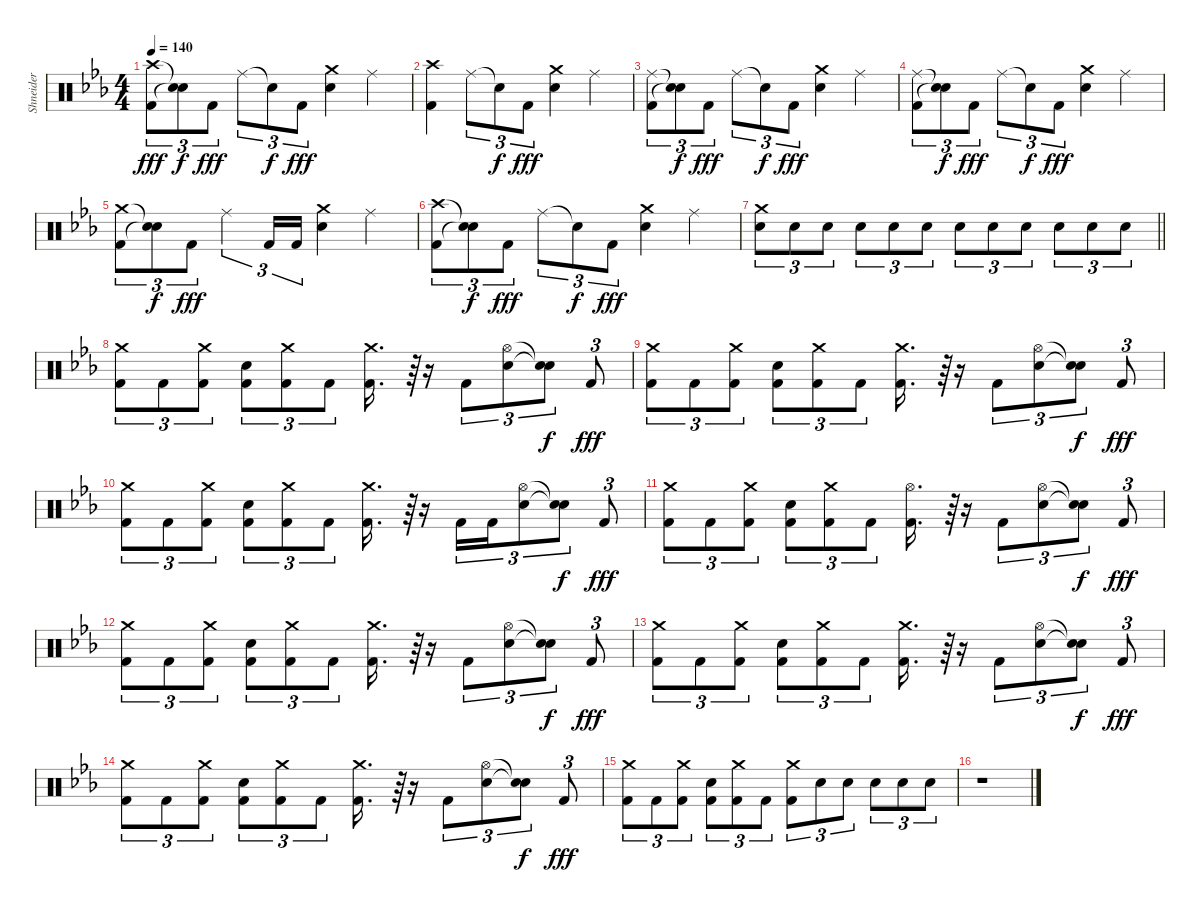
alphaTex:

\track ("Shneider" "Shneider") {instrument percussion}
\staff {score}
\articulation defaults
\ts (4 4)
\tempo 140
\clef neutral
\ks eb
("Crash high (hit)" "Kick (hit) 2").8{tu (3 2) dy fff} ("Snare (hit)"{t} "Snare (hit)"{t}).8{tu (3 2) dy f} "Kick (hit) 2".8{tu (3 2) dy fff} "Ride (middle)".8{tu (3 2)} "Snare (hit)"{t}.8{tu (3 2) dy f} "Kick (hit) 2".8{tu (3 2) dy fff} ("Crash medium (hit)" "Snare (hit) 2").4 "Ride (middle)".4 |
("Crash high (hit)" "Kick (hit) 2").4 "Ride (middle)".8{tu (3 2)} "Snare (hit)"{t}.8{tu (3 2) dy f} "Kick (hit) 2".8{tu (3 2) dy fff} ("Crash medium (hit)" "Snare (hit) 2").4 "Ride (middle)".4 |
("Ride (middle)" "Kick (hit) 2").8{tu (3 2)} ("Snare (hit)"{t} "Snare (hit)"{t}).8{tu (3 2) dy f} "Kick (hit) 2".8{tu (3 2) dy fff} "Ride (middle)".8{tu (3 2)} "Snare (hit)"{t}.8{tu (3 2) dy f} "Kick (hit) 2".8{tu (3 2) dy fff} ("Crash medium (hit)" "Snare (hit) 2").4 "Ride (middle)".4 |
("Ride (middle)" "Kick (hit) 2").8{tu (3 2)} ("Snare (hit)"{t} "Snare (hit)"{t}).8{tu (3 2) dy f} "Kick (hit) 2".8{tu (3 2) dy fff} "Ride (middle)".8{tu (3 2)} "Snare (hit)"{t}.8{tu (3 2) dy f} "Kick (hit) 2".8{tu (3 2) dy fff} ("Crash medium (hit)" "Snare (hit) 2").4 "Ride (middle)".4 |
("Crash medium (hit)" "Kick (hit) 2").8{tu (3 2)} ("Snare (hit)"{t} "Snare (hit)"{t}).8{tu (3 2) dy f} "Kick (hit) 2".8{tu (3 2) dy fff} "Ride (middle)".4{tu (3 2)} "Kick (hit) 2".16{tu (3 2)} "Kick (hit) 2".16{tu (3 2)} ("Crash medium (hit)" "Snare (hit) 2").4 "Ride (middle)".4 |
("Crash high (hit)" "Kick (hit) 2").8{tu (3 2)} ("Snare (hit)"{t} "Snare (hit)"{t}).8{tu (3 2) dy f} "Kick (hit) 2".8{tu (3 2) dy fff} "Ride (middle)".8{tu (3 2)} "Snare (hit)"{t}.8{tu (3 2) dy f} "Kick (hit) 2".8{tu (3 2) dy fff} ("Crash medium (hit)" "Snare (hit) 2").4 "Ride (middle)".4 |
\barLineRight lightlight
("Crash medium (hit)" "Snare (hit) 2").8{tu (3 2)} "Snare (hit) 2".8{tu (3 2)} "Snare (hit) 2".8{tu (3 2)} "Snare (hit) 2".8{tu (3 2)} "Snare (hit) 2".8{tu (3 2)} "Snare (hit) 2".8{tu (3 2)} "Snare (hit) 2".8{tu (3 2)} "Snare (hit) 2".8{tu (3 2)} "Snare (hit) 2".8{tu (3 2)} "Snare (hit) 2".8{tu (3 2)} "Snare (hit) 2".8{tu (3 2)} "Snare (hit) 2".8{tu (3 2)} |
("Crash medium (hit)" "Kick (hit) 2").8{tu (3 2)} "Kick (hit) 2".8{tu (3 2)} ("Crash medium (hit)" "Kick (hit) 2").8{tu (3 2)} ("Snare (hit) 2" "Kick (hit) 2").8{tu (3 2)} ("Crash medium (hit)" "Kick (hit) 2").8{tu (3 2)} "Kick (hit) 2".8{tu (3 2)} ("Crash medium (hit)" "Kick (hit) 2").16{d} r.64{tu (3 2)} r.16 "Kick (hit) 2".8{tu (3 2)} ("Hi-Hat (open)" "Snare (hit) 2").8{tu (3 2)} ("Snare (hit)"{t} "Snare (hit)"{t}).8{tu (3 2) dy f} "Kick (hit) 2".8{tu (3 2) dy fff} |
("Crash medium (hit)" "Kick (hit) 2").8{tu (3 2)} "Kick (hit) 2".8{tu (3 2)} ("Crash medium (hit)" "Kick (hit) 2").8{tu (3 2)} ("Snare (hit) 2" "Kick (hit) 2").8{tu (3 2)} ("Crash medium (hit)" "Kick (hit) 2").8{tu (3 2)} "Kick (hit) 2".8{tu (3 2)} ("Crash medium (hit)" "Kick (hit) 2").16{d} r.64{tu (3 2)} r.16 "Kick (hit) 2".8{tu (3 2)} ("Hi-Hat (open)" "Snare (hit) 2").8{tu (3 2)} ("Snare (hit)"{t} "Snare (hit)"{t}).8{tu (3 2) dy f} "Kick (hit) 2".8{tu (3 2) dy fff} |
("Crash medium (hit)" "Kick (hit) 2").8{tu (3 2)} "Kick (hit) 2".8{tu (3 2)} ("Crash medium (hit)" "Kick (hit) 2").8{tu (3 2)} ("Snare (hit) 2" "Kick (hit) 2").8{tu (3 2)} ("Crash medium (hit)" "Kick (hit) 2").8{tu (3 2)} "Kick (hit) 2".8{tu (3 2)} ("Crash medium (hit)" "Kick (hit) 2").16{d} r.64{tu (3 2)} r.16 "Kick (hit) 2".16{tu (3 2)} "Kick (hit) 2".16{tu (3 2)} ("Hi-Hat (open)" "Snare (hit) 2").8{tu (3 2)} ("Snare (hit)"{t} "Snare (hit)"{t}).8{tu (3 2) dy f} "Kick (hit) 2".8{tu (3 2) dy fff} |
("Crash medium (hit)" "Kick (hit) 2").8{tu (3 2)} "Kick (hit) 2".8{tu (3 2)} ("Crash medium (hit)" "Kick (hit) 2").8{tu (3 2)} ("Snare (hit) 2" "Kick (hit) 2").8{tu (3 2)} ("Crash medium (hit)" "Kick (hit) 2").8{tu (3 2)} "Kick (hit) 2".8{tu (3 2)} ("Hi-Hat (open)" "Kick (hit) 2").16{d} r.64{tu (3 2)} r.16 "Kick (hit) 2".8{tu (3 2)} ("Hi-Hat (open)" "Snare (hit) 2").8{tu (3 2)} ("Snare (hit)"{t} "Snare (hit)"{t}).8{tu (3 2) dy f} "Kick (hit) 2".8{tu (3 2) dy fff} |
("Crash medium (hit)" "Kick (hit) 2").8{tu (3 2)} "Kick (hit) 2".8{tu (3 2)} ("Crash medium (hit)" "Kick (hit) 2").8{tu (3 2)} ("Snare (hit) 2" "Kick (hit) 2").8{tu (3 2)} ("Crash medium (hit)" "Kick (hit) 2").8{tu (3 2)} "Kick (hit) 2".8{tu (3 2)} ("Crash medium (hit)" "Kick (hit) 2").16{d} r.64{tu (3 2)} r.16 "Kick (hit) 2".8{tu (3 2)} ("Hi-Hat (open)" "Snare (hit) 2").8{tu (3 2)} ("Snare (hit)"{t} "Snare (hit)"{t}).8{tu (3 2) dy f} "Kick (hit) 2".8{tu (3 2) dy fff} |
("Crash medium (hit)" "Kick (hit) 2").8{tu (3 2)} "Kick (hit) 2".8{tu (3 2)} ("Crash medium (hit)" "Kick (hit) 2").8{tu (3 2)} ("Snare (hit) 2" "Kick (hit) 2").8{tu (3 2)} ("Crash medium (hit)" "Kick (hit) 2").8{tu (3 2)} "Kick (hit) 2".8{tu (3 2)} ("Crash medium (hit)" "Kick (hit) 2").16{d} r.64{tu (3 2)} r.16 "Kick (hit) 2".8{tu (3 2)} ("Hi-Hat (open)" "Snare (hit) 2").8{tu (3 2)} ("Snare (hit)"{t} "Snare (hit)"{t}).8{tu (3 2) dy f} "Kick (hit) 2".8{tu (3 2) dy fff} |
("Crash medium (hit)" "Kick (hit) 2").8{tu (3 2)} "Kick (hit) 2".8{tu (3 2)} ("Crash medium (hit)" "Kick (hit) 2").8{tu (3 2)} ("Snare (hit) 2" "Kick (hit) 2").8{tu (3 2)} ("Crash medium (hit)" "Kick (hit) 2").8{tu (3 2)} "Kick (hit) 2".8{tu (3 2)} ("Crash medium (hit)" "Kick (hit) 2").16{d} r.64{tu (3 2)} r.16 "Kick (hit) 2".8{tu (3 2)} ("Hi-Hat (open)" "Snare (hit) 2").8{tu (3 2)} ("Snare (hit)"{t} "Snare (hit)"{t}).8{tu (3 2) dy f} "Kick (hit) 2".8{tu (3 2) dy fff} |
("Crash medium (hit)" "Kick (hit) 2").8{tu (3 2)} "Kick (hit) 2".8{tu (3 2)} ("Crash medium (hit)" "Kick (hit) 2").8{tu (3 2)} ("Snare (hit) 2" "Kick (hit) 2").8{tu (3 2)} ("Crash medium (hit)" "Kick (hit) 2").8{tu (3 2)} "Kick (hit) 2".8{tu (3 2)} ("Crash medium (hit)" "Kick (hit) 2").8{tu (3 2)} "Snare (hit) 2".8{tu (3 2)} "Snare (hit) 2".8{tu (3 2)} "Snare (hit) 2".8{tu (3 2)} "Snare (hit) 2".8{tu (3 2)} "Snare (hit) 2".8{tu (3 2)} |
r.1
